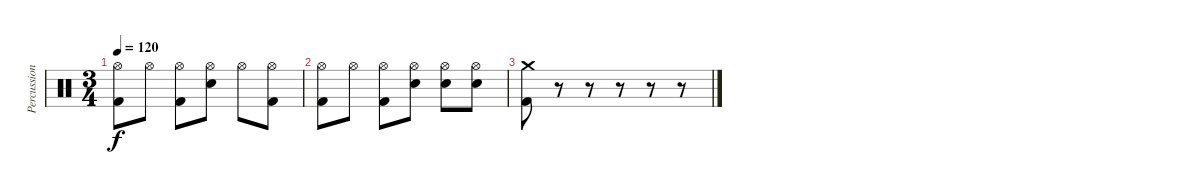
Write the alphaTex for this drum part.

\track ("Percussion" "Percussion") {instrument percussion}
\staff {score}
\articulation defaults
\ts (3 4)
\tempo 120
\clef neutral
\ks c
("Hi-Hat (open)" "Kick (hit) 2").8{dy f} "Hi-Hat (open)".8 ("Hi-Hat (open)" "Kick (hit) 2").8 ("Hi-Hat (open)" "Snare (hit) 2").8 "Hi-Hat (open)".8 ("Hi-Hat (open)" "Kick (hit) 2").8 |
("Hi-Hat (open)" "Kick (hit) 2").8 "Hi-Hat (open)".8 ("Hi-Hat (open)" "Kick (hit) 2").8 ("Hi-Hat (open)" "Snare (hit) 2").8 ("Hi-Hat (open)" "Snare (hit) 2").8 ("Hi-Hat (open)" "Snare (hit) 2").8 |
("Crash medium (hit)" "Kick (hit) 2").8 r.8 r.8 r.8 r.8 r.8
